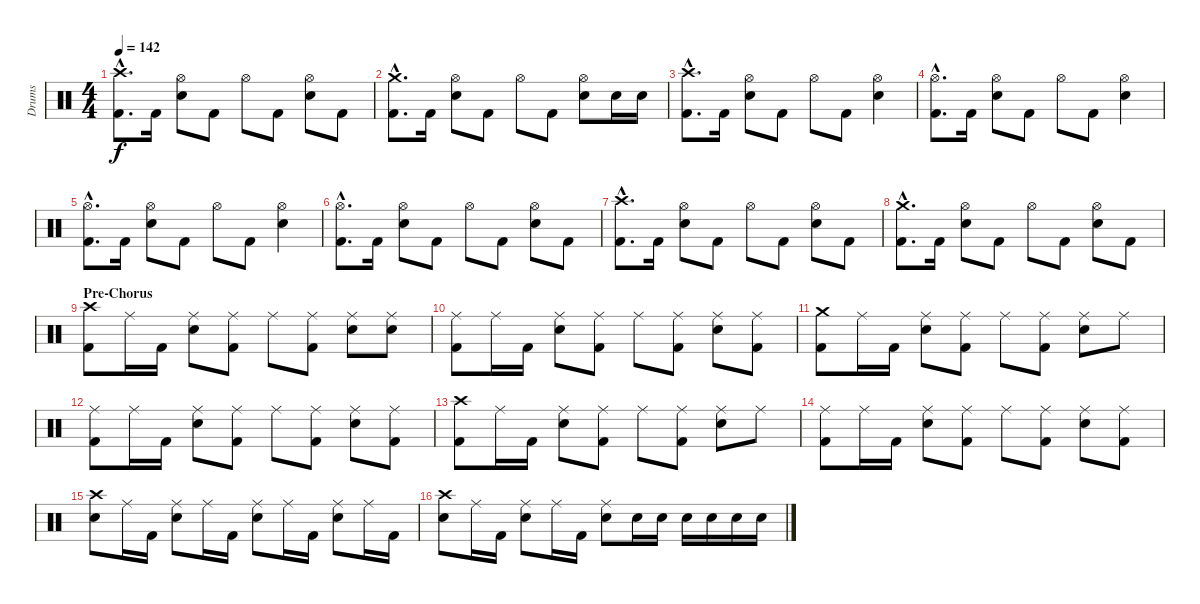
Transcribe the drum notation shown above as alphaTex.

\track ("Drums" "Drums") {instrument percussion}
\staff {score}
\articulation defaults
\ts (4 4)
\tempo 142
\clef neutral
\ks c
("Crash high (hit)"{hac} "Kick (hit) 2"{hac}).8{d dy f} "Kick (hit) 2".16 ("Hi-Hat (open)" "Electric Snare (hit)").8 "Kick (hit) 2".8 "Hi-Hat (open)".8 "Kick (hit) 2".8 ("Hi-Hat (open)" "Electric Snare (hit)").8 "Kick (hit) 2".8 |
("Crash medium (hit)"{hac} "Kick (hit) 2"{hac}).8{d} "Kick (hit) 2".16 ("Hi-Hat (open)" "Electric Snare (hit)").8 "Kick (hit) 2".8 "Hi-Hat (open)".8 "Kick (hit) 2".8 ("Hi-Hat (open)" "Electric Snare (hit)").8 "Electric Snare (hit)".16 "Electric Snare (hit)".16 |
("Crash high (hit)"{hac} "Kick (hit) 2"{hac}).8{d} "Kick (hit) 2".16 ("Hi-Hat (open)" "Electric Snare (hit)").8 "Kick (hit) 2".8 "Hi-Hat (open)".8 "Kick (hit) 2".8 ("Hi-Hat (open)" "Electric Snare (hit)").4 |
("Hi-Hat (open)"{hac} "Kick (hit) 2"{hac}).8{d} "Kick (hit) 2".16 ("Hi-Hat (open)" "Electric Snare (hit)").8 "Kick (hit) 2".8 "Hi-Hat (open)".8 "Kick (hit) 2".8 ("Hi-Hat (open)" "Electric Snare (hit)").4 |
("Hi-Hat (open)"{hac} "Kick (hit) 2"{hac}).8{d} "Kick (hit) 2".16 ("Hi-Hat (open)" "Electric Snare (hit)").8 "Kick (hit) 2".8 "Hi-Hat (open)".8 "Kick (hit) 2".8 ("Hi-Hat (open)" "Electric Snare (hit)").4 |
("Hi-Hat (open)"{hac} "Kick (hit) 2"{hac}).8{d} "Kick (hit) 2".16 ("Hi-Hat (open)" "Electric Snare (hit)").8 "Kick (hit) 2".8 "Hi-Hat (open)".8 "Kick (hit) 2".8 ("Hi-Hat (open)" "Electric Snare (hit)").8 "Kick (hit) 2".8 |
("Crash high (hit)"{hac} "Kick (hit) 2"{hac}).8{d} "Kick (hit) 2".16 ("Hi-Hat (open)" "Electric Snare (hit)").8 "Kick (hit) 2".8 "Hi-Hat (open)".8 "Kick (hit) 2".8 ("Hi-Hat (open)" "Electric Snare (hit)").8 "Kick (hit) 2".8 |
("Crash medium (hit)"{hac} "Kick (hit) 2"{hac}).8{d} "Kick (hit) 2".16 ("Hi-Hat (open)" "Electric Snare (hit)").8 "Kick (hit) 2".8 "Hi-Hat (open)".8 "Kick (hit) 2".8 ("Hi-Hat (open)" "Electric Snare (hit)").8 "Kick (hit) 2".8 |
\section ("" "Pre-Chorus")
("Crash high (hit)" "Kick (hit) 2").8 "Ride (middle)".16 "Kick (hit) 2".16 ("Ride (middle)" "Electric Snare (hit)").8 ("Ride (middle)" "Kick (hit) 2").8 "Ride (middle)".8 ("Ride (middle)" "Kick (hit) 2").8 ("Ride (middle)" "Electric Snare (hit)").8 ("Ride (middle)" "Electric Snare (hit)").8 |
("Ride (middle)" "Kick (hit) 2").8 "Ride (middle)".16 "Kick (hit) 2".16 ("Ride (middle)" "Electric Snare (hit)").8 ("Ride (middle)" "Kick (hit) 2").8 "Ride (middle)".8 ("Ride (middle)" "Kick (hit) 2").8 ("Ride (middle)" "Electric Snare (hit)").8 ("Ride (middle)" "Kick (hit) 2").8 |
("Crash medium (hit)" "Kick (hit) 2").8 "Ride (middle)".16 "Kick (hit) 2".16 ("Ride (middle)" "Electric Snare (hit)").8 ("Ride (middle)" "Kick (hit) 2").8 "Ride (middle)".8 ("Ride (middle)" "Kick (hit) 2").8 ("Ride (middle)" "Electric Snare (hit)").8 "Ride (middle)".8 |
("Ride (middle)" "Kick (hit) 2").8 "Ride (middle)".16 "Kick (hit) 2".16 ("Ride (middle)" "Electric Snare (hit)").8 ("Ride (middle)" "Kick (hit) 2").8 "Ride (middle)".8 ("Ride (middle)" "Kick (hit) 2").8 ("Ride (middle)" "Electric Snare (hit)").8 ("Ride (middle)" "Kick (hit) 2").8 |
("Crash high (hit)" "Kick (hit) 2").8 "Ride (middle)".16 "Kick (hit) 2".16 ("Ride (middle)" "Electric Snare (hit)").8 ("Ride (middle)" "Kick (hit) 2").8 "Ride (middle)".8 ("Ride (middle)" "Kick (hit) 2").8 ("Ride (middle)" "Electric Snare (hit)").8 "Ride (middle)".8 |
("Ride (middle)" "Kick (hit) 2").8 "Ride (middle)".16 "Kick (hit) 2".16 ("Ride (middle)" "Electric Snare (hit)").8 ("Ride (middle)" "Kick (hit) 2").8 "Ride (middle)".8 ("Ride (middle)" "Kick (hit) 2").8 ("Ride (middle)" "Electric Snare (hit)").8 ("Ride (middle)" "Kick (hit) 2").8 |
("Crash high (hit)" "Electric Snare (hit)").8 "Ride (middle)".16 "Kick (hit) 2".16 ("Ride (middle)" "Electric Snare (hit)").8 "Ride (middle)".16 "Kick (hit) 2".16 ("Ride (middle)" "Electric Snare (hit)").8 "Ride (middle)".16 "Kick (hit) 2".16 ("Ride (middle)" "Electric Snare (hit)").8 "Ride (middle)".16 "Kick (hit) 2".16 |
("Crash high (hit)" "Electric Snare (hit)").8 "Ride (middle)".16 "Kick (hit) 2".16 ("Ride (middle)" "Electric Snare (hit)").8 "Ride (middle)".16 "Kick (hit) 2".16 ("Ride (middle)" "Electric Snare (hit)").8 "Electric Snare (hit)".16 "Electric Snare (hit)".16 "Electric Snare (hit)".16 "Electric Snare (hit)".16 "Electric Snare (hit)".16 "Electric Snare (hit)".16
